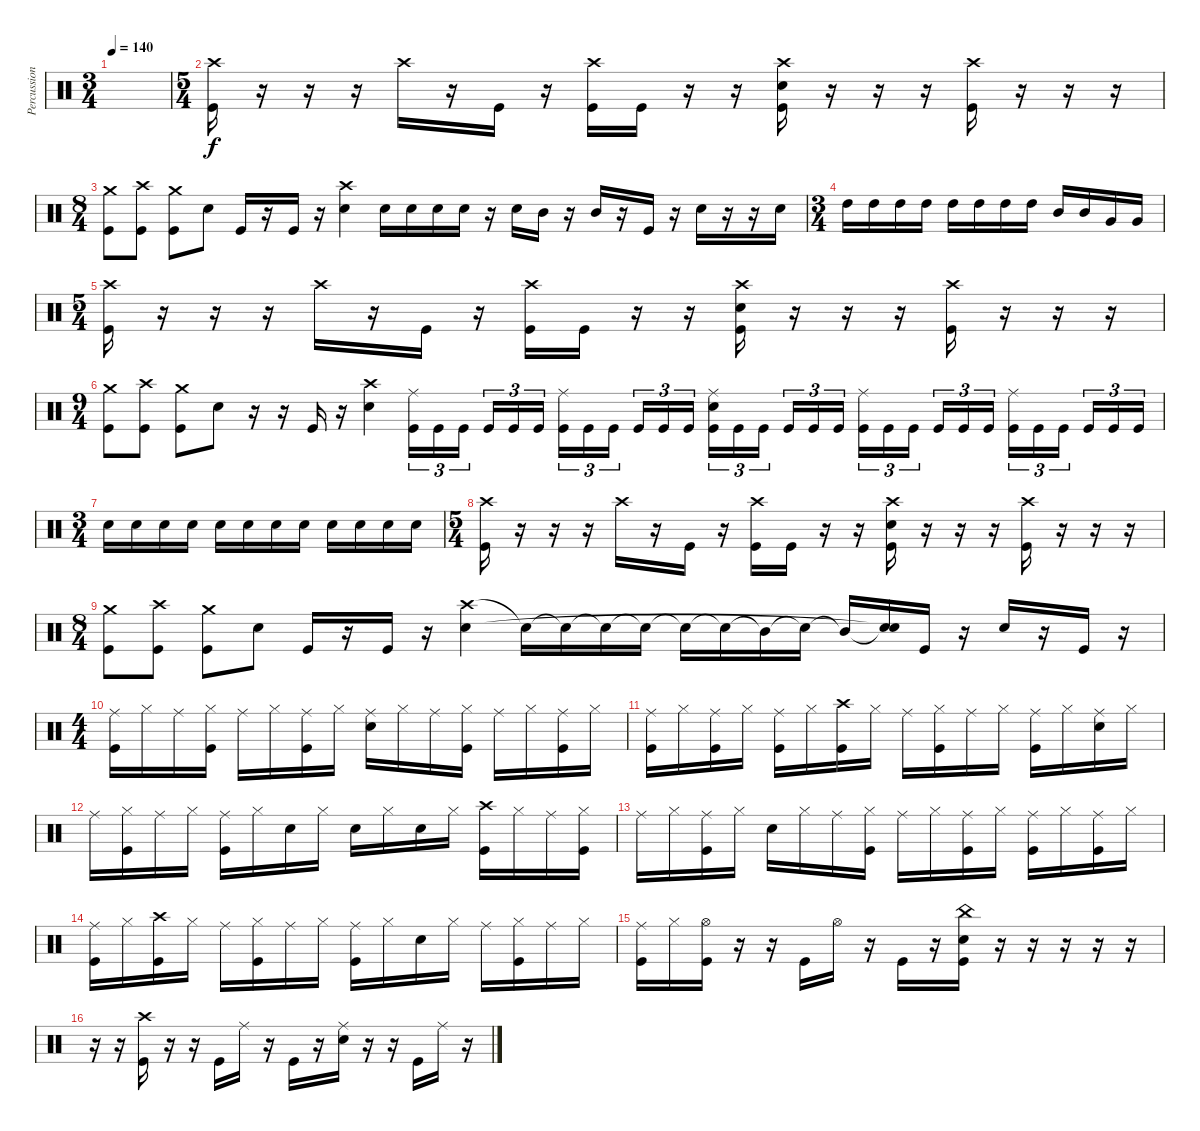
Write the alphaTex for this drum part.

\track ("Percussion" "Percussion") {instrument percussion}
\staff {score}
\articulation defaults
\ts (3 4)
\tempo 140
\clef neutral
\ks c
|
\ts (5 4)
("Crash high (hit)" "Kick (hit)").16 r.16 r.16 r.16 "Crash high (hit)".16 r.16 "Kick (hit)".16 r.16 ("Crash high (hit)" "Kick (hit)").16 "Kick (hit)".16 r.16 r.16 ("Crash high (hit)" "Snare (hit) 2" "Kick (hit)").16 r.16 r.16 r.16 ("Crash high (hit)" "Kick (hit)").16 r.16 r.16 r.16 |
\ts (8 4)
("Crash medium (hit)" "Kick (hit)").8 ("Crash high (hit)" "Kick (hit)").8 ("Crash medium (hit)" "Kick (hit)").8 "Snare (hit) 2".8 "Kick (hit)".16 r.16 "Kick (hit)".16 r.16 ("Crash high (hit)" "Snare (hit) 2").4 "Snare (hit) 2".16 "Snare (hit) 2".16 "Snare (hit) 2".16 "Snare (hit) 2".16 r.16 "Snare (hit) 2".16 "Mid Tom (hit)".16 r.16 "Mid Tom (hit)".16 r.16 "Kick (hit)".16 r.16 "Snare (hit) 2".16 r.16 r.16 "Snare (hit) 2".16 |
\ts (3 4)
"High Tom (hit)".16 "High Tom (hit)".16 "High Tom (hit)".16 "High Tom (hit)".16 "High Tom (hit)".16 "High Tom (hit)".16 "High Tom (hit)".16 "High Tom (hit)".16 "Mid Tom (hit)".16 "Mid Tom (hit)".16 "Very Low Tom (hit)".16 "Very Low Tom (hit)".16 |
\ts (5 4)
("Crash high (hit)" "Kick (hit)").16 r.16 r.16 r.16 "Crash high (hit)".16 r.16 "Kick (hit)".16 r.16 ("Crash high (hit)" "Kick (hit)").16 "Kick (hit)".16 r.16 r.16 ("Crash high (hit)" "Snare (hit) 2" "Kick (hit)").16 r.16 r.16 r.16 ("Crash high (hit)" "Kick (hit)").16 r.16 r.16 r.16 |
\ts (9 4)
("Crash medium (hit)" "Kick (hit)").8 ("Crash high (hit)" "Kick (hit)").8 ("Crash medium (hit)" "Kick (hit)").8 "Snare (hit) 2".8 r.16 r.16 "Kick (hit)".16 r.16 ("Crash high (hit)" "Snare (hit) 2").4 ("Ride (middle)" "Kick (hit)").16{tu (3 2)} "Kick (hit)".16{tu (3 2)} "Kick (hit)".16{tu (3 2) beam splitsecondary} "Kick (hit)".16{tu (3 2)} "Kick (hit)".16{tu (3 2)} "Kick (hit)".16{tu (3 2) beam splitsecondary} ("Ride (middle)" "Kick (hit)").16{tu (3 2)} "Kick (hit)".16{tu (3 2)} "Kick (hit)".16{tu (3 2) beam splitsecondary} "Kick (hit)".16{tu (3 2)} "Kick (hit)".16{tu (3 2)} "Kick (hit)".16{tu (3 2)} ("Snare (hit) 2" "Ride (middle)" "Kick (hit)").16{tu (3 2)} "Kick (hit)".16{tu (3 2)} "Kick (hit)".16{tu (3 2) beam splitsecondary} "Kick (hit)".16{tu (3 2)} "Kick (hit)".16{tu (3 2)} "Kick (hit)".16{tu (3 2) beam splitsecondary} ("Ride (middle)" "Kick (hit)").16{tu (3 2)} "Kick (hit)".16{tu (3 2)} "Kick (hit)".16{tu (3 2) beam splitsecondary} "Kick (hit)".16{tu (3 2)} "Kick (hit)".16{tu (3 2)} "Kick (hit)".16{tu (3 2) beam splitsecondary} ("Ride (middle)" "Kick (hit)").16{tu (3 2)} "Kick (hit)".16{tu (3 2)} "Kick (hit)".16{tu (3 2) beam splitsecondary} "Kick (hit)".16{tu (3 2)} "Kick (hit)".16{tu (3 2)} "Kick (hit)".16{tu (3 2)} |
\ts (3 4)
"Snare (hit) 2".16 "Snare (hit) 2".16 "Snare (hit) 2".16 "Snare (hit) 2".16 "Snare (hit) 2".16 "Snare (hit) 2".16 "Snare (hit) 2".16 "Snare (hit) 2".16 "Snare (hit) 2".16 "Snare (hit) 2".16 "Snare (hit) 2".16 "Snare (hit) 2".16 |
\ts (5 4)
("Crash high (hit)" "Kick (hit)").16 r.16 r.16 r.16 "Crash high (hit)".16 r.16 "Kick (hit)".16 r.16 ("Crash high (hit)" "Kick (hit)").16 "Kick (hit)".16 r.16 r.16 ("Crash high (hit)" "Snare (hit) 2" "Kick (hit)").16 r.16 r.16 r.16 ("Crash high (hit)" "Kick (hit)").16 r.16 r.16 r.16 |
\ts (8 4)
("Crash medium (hit)" "Kick (hit)").8 ("Crash high (hit)" "Kick (hit)").8 ("Crash medium (hit)" "Kick (hit)").8 "Snare (hit) 2".8 "Kick (hit)".16 r.16 "Kick (hit)".16 r.16 ("Crash high (hit)" "Snare (hit) 2").4 "Snare (hit) 2"{t}.16 "Snare (hit) 2"{t}.16 "Snare (hit) 2"{t}.16 "Snare (hit) 2"{t}.16 "Snare (hit)"{t}.16 "Snare (hit) 2"{t}.16 "Mid Tom (hit)"{t}.16 "Snare (hit)"{t}.16 "Mid Tom (hit)"{t}.16 ("Snare (hit)"{t} "Snare (hit)"{t}).16 "Kick (hit)".16 r.16 "Snare (hit) 2".16 r.16 "Kick (hit)".16 r.16 |
\ts (4 4)
("Ride (middle)" "Kick (hit)").16 "Hi-Hat (closed)".16 "Ride (middle)".16 ("Hi-Hat (closed)" "Kick (hit)").16 "Ride (middle)".16 "Hi-Hat (closed)".16 ("Ride (middle)" "Kick (hit)").16 "Hi-Hat (closed)".16 ("Ride (middle)" "Snare (hit) 2").16 "Hi-Hat (closed)".16 "Ride (middle)".16 ("Hi-Hat (closed)" "Kick (hit)").16 "Ride (middle)".16 "Hi-Hat (closed)".16 ("Ride (middle)" "Kick (hit)").16 "Hi-Hat (closed)".16 |
("Ride (middle)" "Kick (hit)").16 "Hi-Hat (closed)".16 ("Ride (middle)" "Kick (hit)").16 "Hi-Hat (closed)".16 ("Ride (middle)" "Kick (hit)").16 "Hi-Hat (closed)".16 ("Crash high (hit)" "Kick (hit)").16 "Hi-Hat (closed)".16 "Ride (middle)".16 ("Hi-Hat (closed)" "Kick (hit)").16 "Ride (middle)".16 "Hi-Hat (closed)".16 ("Ride (middle)" "Kick (hit)").16 "Hi-Hat (closed)".16 ("Ride (middle)" "Snare (hit) 2").16 "Hi-Hat (closed)".16 |
"Ride (middle)".16 ("Hi-Hat (closed)" "Kick (hit)").16 "Ride (middle)".16 "Hi-Hat (closed)".16 ("Ride (middle)" "Kick (hit)").16 "Hi-Hat (closed)".16 "Snare (hit) 2".16 "Hi-Hat (closed)".16 "Snare (hit) 2".16 "Hi-Hat (closed)".16 "Snare (hit) 2".16 "Hi-Hat (closed)".16 ("Crash high (hit)" "Kick (hit)").16 "Hi-Hat (closed)".16 "Ride (middle)".16 ("Hi-Hat (closed)" "Kick (hit)").16 |
"Ride (middle)".16 "Hi-Hat (closed)".16 ("Ride (middle)" "Kick (hit)").16 "Hi-Hat (closed)".16 "Snare (hit) 2".16 "Hi-Hat (closed)".16 "Ride (middle)".16 ("Hi-Hat (closed)" "Kick (hit)").16 "Ride (middle)".16 "Hi-Hat (closed)".16 ("Ride (middle)" "Kick (hit)").16 "Hi-Hat (closed)".16 ("Ride (middle)" "Kick (hit)").16 "Hi-Hat (closed)".16 ("Ride (middle)" "Kick (hit)").16 "Hi-Hat (closed)".16 |
("Ride (middle)" "Kick (hit)").16 "Hi-Hat (closed)".16 ("Crash high (hit)" "Kick (hit)").16 "Hi-Hat (closed)".16 "Ride (middle)".16 ("Hi-Hat (closed)" "Kick (hit)").16 "Ride (middle)".16 "Hi-Hat (closed)".16 ("Ride (middle)" "Kick (hit)").16 "Hi-Hat (closed)".16 "Snare (hit) 2".16 "Hi-Hat (closed)".16 "Ride (middle)".16 ("Hi-Hat (closed)" "Kick (hit)").16 "Ride (middle)".16 "Hi-Hat (closed)".16 |
("Ride (middle)" "Kick (hit)").16 "Hi-Hat (closed)".16 ("Hi-Hat (open)" "Kick (hit)").16 r.16 r.16 "Kick (hit)".16 "Hi-Hat (open)".16 r.16 "Kick (hit)".16 r.16 ("China (hit)" "Snare (hit) 2" "Kick (hit)").16 r.16 r.16 r.16 r.16 r.16 |
r.16 r.16 ("Crash high (hit)" "Kick (hit)").16 r.16 r.16 "Kick (hit)".16 "Ride (middle)".16 r.16 "Kick (hit)".16 r.16 ("Ride (middle)" "Snare (hit) 2").16 r.16 r.16 "Kick (hit)".16 "Ride (middle)".16 r.16
